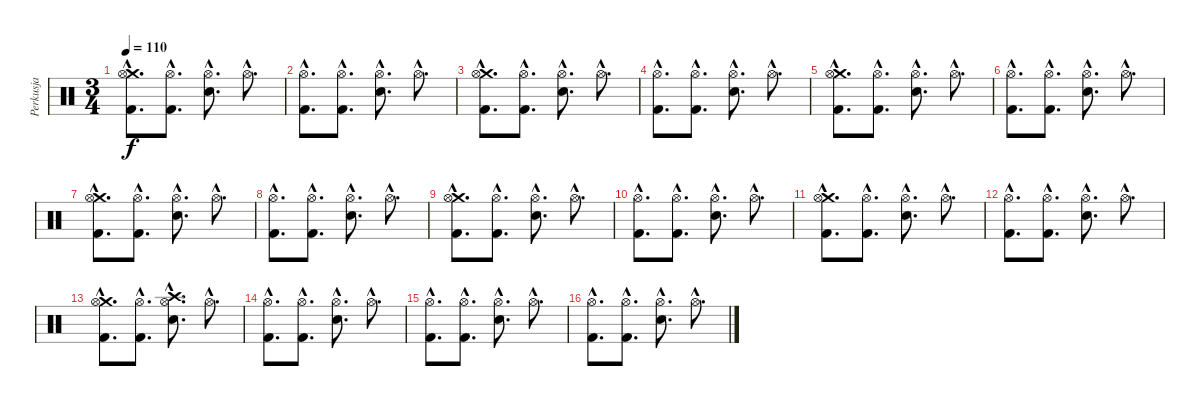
\track ("Perkusja" "Perkusja") {instrument percussion}
\staff {score}
\articulation defaults
\ts (3 4)
\tempo 110
\clef neutral
\ks c
("Kick (hit) 2"{hac} "Crash medium (hit)"{hac} "Hi-Hat (open)"{hac}).8{d dy f} ("Kick (hit) 2"{hac} "Hi-Hat (open)"{hac}).8{d} ("Electric Snare (hit)"{hac} "Hi-Hat (open)"{hac}).8{d} "Hi-Hat (open)"{hac}.8{d} |
("Kick (hit) 2"{hac} "Hi-Hat (open)"{hac}).8{d} ("Kick (hit) 2"{hac} "Hi-Hat (open)"{hac}).8{d} ("Electric Snare (hit)"{hac} "Hi-Hat (open)"{hac}).8{d} "Hi-Hat (open)"{hac}.8{d} |
("Kick (hit) 2"{hac} "Crash medium (hit)"{hac} "Hi-Hat (open)"{hac}).8{d} ("Kick (hit) 2"{hac} "Hi-Hat (open)"{hac}).8{d} ("Electric Snare (hit)"{hac} "Hi-Hat (open)"{hac}).8{d} "Hi-Hat (open)"{hac}.8{d} |
("Kick (hit) 2"{hac} "Hi-Hat (open)"{hac}).8{d} ("Kick (hit) 2"{hac} "Hi-Hat (open)"{hac}).8{d} ("Electric Snare (hit)"{hac} "Hi-Hat (open)"{hac}).8{d} "Hi-Hat (open)"{hac}.8{d} |
("Kick (hit) 2"{hac} "Crash medium (hit)"{hac} "Hi-Hat (open)"{hac}).8{d} ("Kick (hit) 2"{hac} "Hi-Hat (open)"{hac}).8{d} ("Electric Snare (hit)"{hac} "Hi-Hat (open)"{hac}).8{d} "Hi-Hat (open)"{hac}.8{d} |
("Kick (hit) 2"{hac} "Hi-Hat (open)"{hac}).8{d} ("Kick (hit) 2"{hac} "Hi-Hat (open)"{hac}).8{d} ("Electric Snare (hit)"{hac} "Hi-Hat (open)"{hac}).8{d} "Hi-Hat (open)"{hac}.8{d} |
("Kick (hit) 2"{hac} "Crash medium (hit)"{hac} "Hi-Hat (open)"{hac}).8{d} ("Kick (hit) 2"{hac} "Hi-Hat (open)"{hac}).8{d} ("Electric Snare (hit)"{hac} "Hi-Hat (open)"{hac}).8{d} "Hi-Hat (open)"{hac}.8{d} |
("Kick (hit) 2"{hac} "Hi-Hat (open)"{hac}).8{d} ("Kick (hit) 2"{hac} "Hi-Hat (open)"{hac}).8{d} ("Electric Snare (hit)"{hac} "Hi-Hat (open)"{hac}).8{d} "Hi-Hat (open)"{hac}.8{d} |
("Kick (hit) 2"{hac} "Crash medium (hit)"{hac} "Hi-Hat (open)"{hac}).8{d} ("Kick (hit) 2"{hac} "Hi-Hat (open)"{hac}).8{d} ("Electric Snare (hit)"{hac} "Hi-Hat (open)"{hac}).8{d} "Hi-Hat (open)"{hac}.8{d} |
("Kick (hit) 2"{hac} "Hi-Hat (open)"{hac}).8{d} ("Kick (hit) 2"{hac} "Hi-Hat (open)"{hac}).8{d} ("Electric Snare (hit)"{hac} "Hi-Hat (open)"{hac}).8{d} "Hi-Hat (open)"{hac}.8{d} |
("Kick (hit) 2"{hac} "Crash medium (hit)"{hac} "Hi-Hat (open)"{hac}).8{d} ("Kick (hit) 2"{hac} "Hi-Hat (open)"{hac}).8{d} ("Electric Snare (hit)"{hac} "Hi-Hat (open)"{hac}).8{d} "Hi-Hat (open)"{hac}.8{d} |
("Kick (hit) 2"{hac} "Hi-Hat (open)"{hac}).8{d} ("Kick (hit) 2"{hac} "Hi-Hat (open)"{hac}).8{d} ("Electric Snare (hit)"{hac} "Hi-Hat (open)"{hac}).8{d} "Hi-Hat (open)"{hac}.8{d} |
("Kick (hit) 2"{hac} "Crash medium (hit)"{hac} "Hi-Hat (open)"{hac}).8{d} ("Kick (hit) 2"{hac} "Hi-Hat (open)"{hac}).8{d} ("Electric Snare (hit)"{hac} "Crash high (hit)"{hac} "Hi-Hat (open)"{hac}).8{d} "Hi-Hat (open)"{hac}.8{d} |
("Kick (hit) 2"{hac} "Hi-Hat (open)"{hac}).8{d} ("Kick (hit) 2"{hac} "Hi-Hat (open)"{hac}).8{d} ("Electric Snare (hit)"{hac} "Hi-Hat (open)"{hac}).8{d} "Hi-Hat (open)"{hac}.8{d} |
("Kick (hit) 2"{hac} "Hi-Hat (open)"{hac}).8{d} ("Kick (hit) 2"{hac} "Hi-Hat (open)"{hac}).8{d} ("Electric Snare (hit)"{hac} "Hi-Hat (open)"{hac}).8{d} "Hi-Hat (open)"{hac}.8{d} |
("Kick (hit) 2"{hac} "Hi-Hat (open)"{hac}).8{d} ("Kick (hit) 2"{hac} "Hi-Hat (open)"{hac}).8{d} ("Electric Snare (hit)"{hac} "Hi-Hat (open)"{hac}).8{d} "Hi-Hat (open)"{hac}.8{d}
